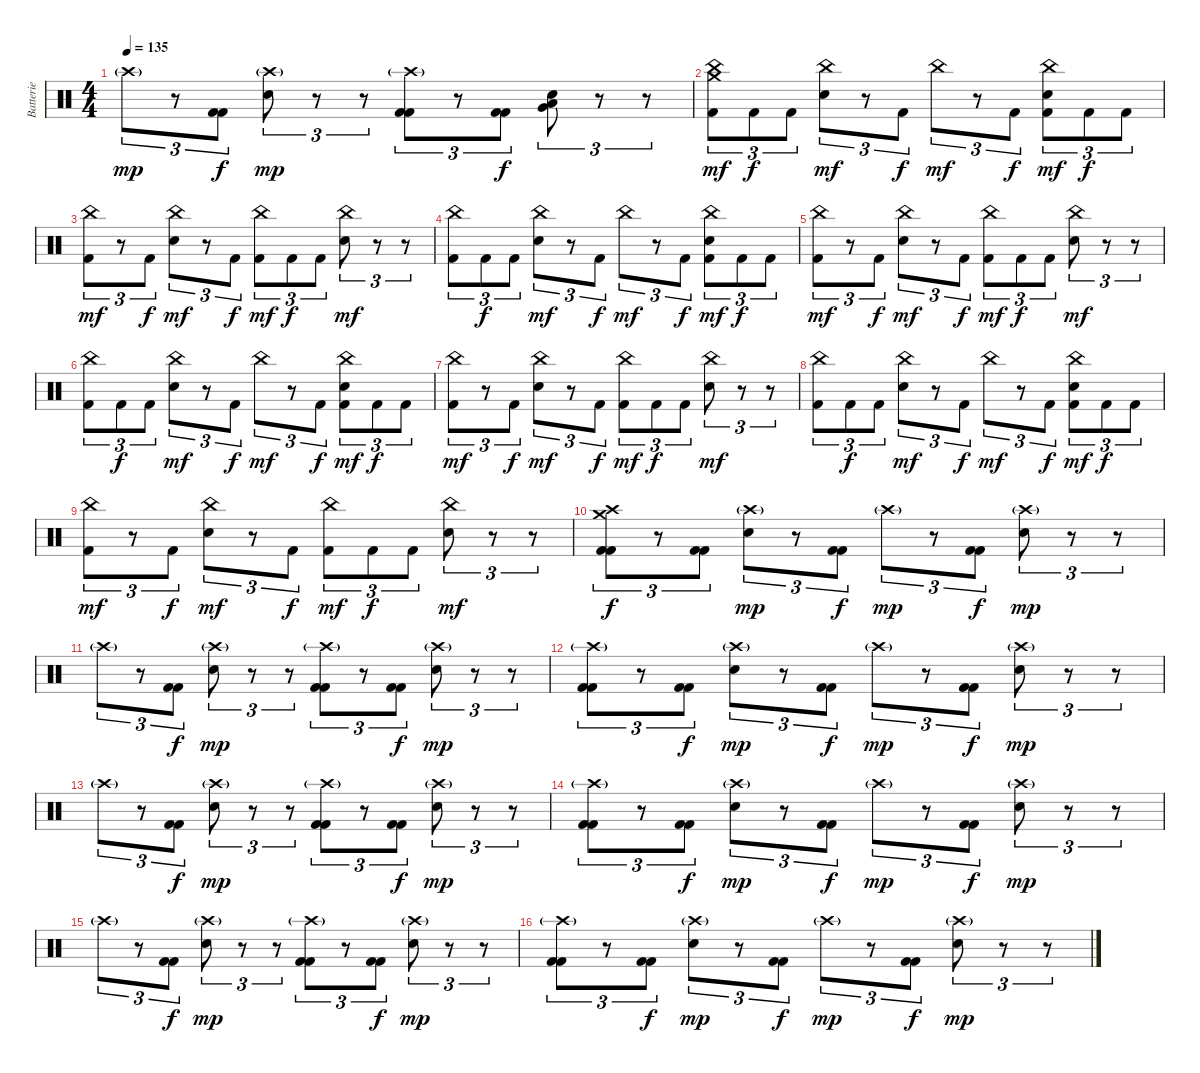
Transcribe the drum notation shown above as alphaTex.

\track ("Batterie" "Batterie") {instrument percussion}
\staff {score}
\articulation defaults
\ts (4 4)
\tempo 135
\clef neutral
\ks c "Crash high (hit)"{g}.8{tu (3 2) dy mp}
r.8{tu (3 2)} ("Kick (hit) 2" "Kick (hit) 2").8{tu (3 2) dy f} ("Crash high (hit)"{g} "Electric Snare (hit)").8{tu (3 2) dy mp} r.8{tu (3 2)} r.8{tu (3 2)} ("Crash high (hit)"{g} "Kick (hit) 2" "Kick (hit) 2").8{tu (3 2)} r.8{tu (3 2)} ("Kick (hit) 2" "Kick (hit) 2").8{tu (3 2) dy f} ("Electric Snare (hit)" "Very Low Tom (hit)" "Low Floor Tom (hit)").8{tu (3 2)} r.8{tu (3 2)} r.8{tu (3 2)} |
("Crash medium (hit)" "China (hit)" "Kick (hit) 2").8{tu (3 2) dy mf} "Kick (hit) 2".8{tu (3 2) dy f} "Kick (hit) 2".8{tu (3 2)} ("China (hit)" "Electric Snare (hit)").8{tu (3 2) dy mf} r.8{tu (3 2)} "Kick (hit) 2".8{tu (3 2) dy f} "China (hit)".8{tu (3 2) dy mf} r.8{tu (3 2)} "Kick (hit) 2".8{tu (3 2) dy f} ("China (hit)" "Electric Snare (hit)" "Kick (hit) 2").8{tu (3 2) dy mf} "Kick (hit) 2".8{tu (3 2) dy f} "Kick (hit) 2".8{tu (3 2)} |
("China (hit)" "Kick (hit) 2").8{tu (3 2) dy mf} r.8{tu (3 2)} "Kick (hit) 2".8{tu (3 2) dy f} ("China (hit)" "Electric Snare (hit)").8{tu (3 2) dy mf} r.8{tu (3 2)} "Kick (hit) 2".8{tu (3 2) dy f} ("China (hit)" "Kick (hit) 2").8{tu (3 2) dy mf} "Kick (hit) 2".8{tu (3 2) dy f} "Kick (hit) 2".8{tu (3 2)} ("China (hit)" "Electric Snare (hit)").8{tu (3 2) dy mf} r.8{tu (3 2)} r.8{tu (3 2)} |
("China (hit)" "Kick (hit) 2").8{tu (3 2)} "Kick (hit) 2".8{tu (3 2) dy f} "Kick (hit) 2".8{tu (3 2)} ("China (hit)" "Electric Snare (hit)").8{tu (3 2) dy mf} r.8{tu (3 2)} "Kick (hit) 2".8{tu (3 2) dy f} "China (hit)".8{tu (3 2) dy mf} r.8{tu (3 2)} "Kick (hit) 2".8{tu (3 2) dy f} ("China (hit)" "Electric Snare (hit)" "Kick (hit) 2").8{tu (3 2) dy mf} "Kick (hit) 2".8{tu (3 2) dy f} "Kick (hit) 2".8{tu (3 2)} |
("China (hit)" "Kick (hit) 2").8{tu (3 2) dy mf} r.8{tu (3 2)} "Kick (hit) 2".8{tu (3 2) dy f} ("China (hit)" "Electric Snare (hit)").8{tu (3 2) dy mf} r.8{tu (3 2)} "Kick (hit) 2".8{tu (3 2) dy f} ("China (hit)" "Kick (hit) 2").8{tu (3 2) dy mf} "Kick (hit) 2".8{tu (3 2) dy f} "Kick (hit) 2".8{tu (3 2)} ("China (hit)" "Electric Snare (hit)").8{tu (3 2) dy mf} r.8{tu (3 2)} r.8{tu (3 2)} |
("China (hit)" "Kick (hit) 2").8{tu (3 2)} "Kick (hit) 2".8{tu (3 2) dy f} "Kick (hit) 2".8{tu (3 2)} ("China (hit)" "Electric Snare (hit)").8{tu (3 2) dy mf} r.8{tu (3 2)} "Kick (hit) 2".8{tu (3 2) dy f} "China (hit)".8{tu (3 2) dy mf} r.8{tu (3 2)} "Kick (hit) 2".8{tu (3 2) dy f} ("China (hit)" "Electric Snare (hit)" "Kick (hit) 2").8{tu (3 2) dy mf} "Kick (hit) 2".8{tu (3 2) dy f} "Kick (hit) 2".8{tu (3 2)} |
("China (hit)" "Kick (hit) 2").8{tu (3 2) dy mf} r.8{tu (3 2)} "Kick (hit) 2".8{tu (3 2) dy f} ("China (hit)" "Electric Snare (hit)").8{tu (3 2) dy mf} r.8{tu (3 2)} "Kick (hit) 2".8{tu (3 2) dy f} ("China (hit)" "Kick (hit) 2").8{tu (3 2) dy mf} "Kick (hit) 2".8{tu (3 2) dy f} "Kick (hit) 2".8{tu (3 2)} ("China (hit)" "Electric Snare (hit)").8{tu (3 2) dy mf} r.8{tu (3 2)} r.8{tu (3 2)} |
("China (hit)" "Kick (hit) 2").8{tu (3 2)} "Kick (hit) 2".8{tu (3 2) dy f} "Kick (hit) 2".8{tu (3 2)} ("China (hit)" "Electric Snare (hit)").8{tu (3 2) dy mf} r.8{tu (3 2)} "Kick (hit) 2".8{tu (3 2) dy f} "China (hit)".8{tu (3 2) dy mf} r.8{tu (3 2)} "Kick (hit) 2".8{tu (3 2) dy f} ("China (hit)" "Electric Snare (hit)" "Kick (hit) 2").8{tu (3 2) dy mf} "Kick (hit) 2".8{tu (3 2) dy f} "Kick (hit) 2".8{tu (3 2)} |
("China (hit)" "Kick (hit) 2").8{tu (3 2) dy mf} r.8{tu (3 2)} "Kick (hit) 2".8{tu (3 2) dy f} ("China (hit)" "Electric Snare (hit)").8{tu (3 2) dy mf} r.8{tu (3 2)} "Kick (hit) 2".8{tu (3 2) dy f} ("China (hit)" "Kick (hit) 2").8{tu (3 2) dy mf} "Kick (hit) 2".8{tu (3 2) dy f} "Kick (hit) 2".8{tu (3 2)} ("China (hit)" "Electric Snare (hit)").8{tu (3 2) dy mf} r.8{tu (3 2)} r.8{tu (3 2)} |
("Crash high (hit)" "Crash medium (hit)" "Kick (hit) 2" "Kick (hit) 2").8{tu (3 2) dy f} r.8{tu (3 2)} ("Kick (hit) 2" "Kick (hit) 2").8{tu (3 2)} ("Crash high (hit)"{g} "Electric Snare (hit)").8{tu (3 2) dy mp} r.8{tu (3 2)} ("Kick (hit) 2" "Kick (hit) 2").8{tu (3 2) dy f} "Crash high (hit)"{g}.8{tu (3 2) dy mp} r.8{tu (3 2)} ("Kick (hit) 2" "Kick (hit) 2").8{tu (3 2) dy f} ("Crash high (hit)"{g} "Electric Snare (hit)").8{tu (3 2) dy mp} r.8{tu (3 2)} r.8{tu (3 2)} |
"Crash high (hit)"{g}.8{tu (3 2)} r.8{tu (3 2)} ("Kick (hit) 2" "Kick (hit) 2").8{tu (3 2) dy f} ("Crash high (hit)"{g} "Electric Snare (hit)").8{tu (3 2) dy mp} r.8{tu (3 2)} r.8{tu (3 2)} ("Crash high (hit)"{g} "Kick (hit) 2" "Kick (hit) 2").8{tu (3 2)} r.8{tu (3 2)} ("Kick (hit) 2" "Kick (hit) 2").8{tu (3 2) dy f} ("Crash high (hit)"{g} "Electric Snare (hit)").8{tu (3 2) dy mp} r.8{tu (3 2)} r.8{tu (3 2)} |
("Crash high (hit)"{g} "Kick (hit) 2" "Kick (hit) 2").8{tu (3 2)} r.8{tu (3 2)} ("Kick (hit) 2" "Kick (hit) 2").8{tu (3 2) dy f} ("Crash high (hit)"{g} "Electric Snare (hit)").8{tu (3 2) dy mp} r.8{tu (3 2)} ("Kick (hit) 2" "Kick (hit) 2").8{tu (3 2) dy f} "Crash high (hit)"{g}.8{tu (3 2) dy mp} r.8{tu (3 2)} ("Kick (hit) 2" "Kick (hit) 2").8{tu (3 2) dy f} ("Crash high (hit)"{g} "Electric Snare (hit)").8{tu (3 2) dy mp} r.8{tu (3 2)} r.8{tu (3 2)} |
"Crash high (hit)"{g}.8{tu (3 2)} r.8{tu (3 2)} ("Kick (hit) 2" "Kick (hit) 2").8{tu (3 2) dy f} ("Crash high (hit)"{g} "Electric Snare (hit)").8{tu (3 2) dy mp} r.8{tu (3 2)} r.8{tu (3 2)} ("Crash high (hit)"{g} "Kick (hit) 2" "Kick (hit) 2").8{tu (3 2)} r.8{tu (3 2)} ("Kick (hit) 2" "Kick (hit) 2").8{tu (3 2) dy f} ("Crash high (hit)"{g} "Electric Snare (hit)").8{tu (3 2) dy mp} r.8{tu (3 2)} r.8{tu (3 2)} |
("Crash high (hit)"{g} "Kick (hit) 2" "Kick (hit) 2").8{tu (3 2)} r.8{tu (3 2)} ("Kick (hit) 2" "Kick (hit) 2").8{tu (3 2) dy f} ("Crash high (hit)"{g} "Electric Snare (hit)").8{tu (3 2) dy mp} r.8{tu (3 2)} ("Kick (hit) 2" "Kick (hit) 2").8{tu (3 2) dy f} "Crash high (hit)"{g}.8{tu (3 2) dy mp} r.8{tu (3 2)} ("Kick (hit) 2" "Kick (hit) 2").8{tu (3 2) dy f} ("Crash high (hit)"{g} "Electric Snare (hit)").8{tu (3 2) dy mp} r.8{tu (3 2)} r.8{tu (3 2)} |
"Crash high (hit)"{g}.8{tu (3 2)} r.8{tu (3 2)} ("Kick (hit) 2" "Kick (hit) 2").8{tu (3 2) dy f} ("Crash high (hit)"{g} "Electric Snare (hit)").8{tu (3 2) dy mp} r.8{tu (3 2)} r.8{tu (3 2)} ("Crash high (hit)"{g} "Kick (hit) 2" "Kick (hit) 2").8{tu (3 2)} r.8{tu (3 2)} ("Kick (hit) 2" "Kick (hit) 2").8{tu (3 2) dy f} ("Crash high (hit)"{g} "Electric Snare (hit)").8{tu (3 2) dy mp} r.8{tu (3 2)} r.8{tu (3 2)} |
("Crash high (hit)"{g} "Kick (hit) 2" "Kick (hit) 2").8{tu (3 2)} r.8{tu (3 2)} ("Kick (hit) 2" "Kick (hit) 2").8{tu (3 2) dy f} ("Crash high (hit)"{g} "Electric Snare (hit)").8{tu (3 2) dy mp} r.8{tu (3 2)} ("Kick (hit) 2" "Kick (hit) 2").8{tu (3 2) dy f} "Crash high (hit)"{g}.8{tu (3 2) dy mp} r.8{tu (3 2)} ("Kick (hit) 2" "Kick (hit) 2").8{tu (3 2) dy f} ("Crash high (hit)"{g} "Electric Snare (hit)").8{tu (3 2) dy mp} r.8{tu (3 2)} r.8{tu (3 2)}
